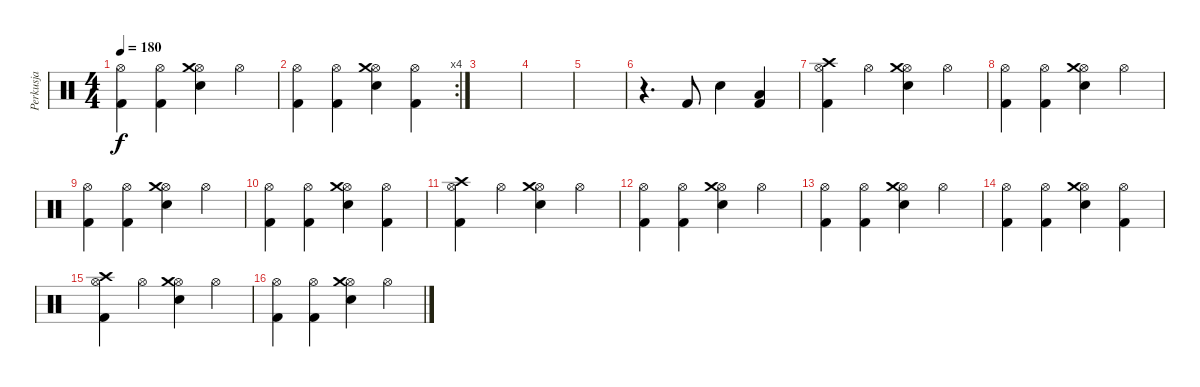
\track ("Perkusja" "Perkusja") {instrument percussion}
\staff {score}
\articulation defaults
\ts (4 4)
\tempo 180
\clef neutral
\ks c
("Hi-Hat (open)" "Kick (hit) 2").4{dy f} ("Hi-Hat (open)" "Kick (hit) 2").4 ("Hi-Hat (open)" "Snare (hit) 2" "Crash medium (hit)").4 "Hi-Hat (open)".4 |
\rc 4
("Hi-Hat (open)" "Kick (hit) 2").4 ("Hi-Hat (open)" "Kick (hit) 2").4 ("Hi-Hat (open)" "Snare (hit) 2" "Crash medium (hit)").4 ("Hi-Hat (open)" "Kick (hit) 2").4 |
|
|
|
r.4{d} "Kick (hit) 2".8 "Snare (hit) 2".4 ("Low Tom (hit)" "Kick (hit) 2").4 |
("Hi-Hat (open)" "Kick (hit) 2" "Crash high (hit)").4 "Hi-Hat (open)".4 ("Hi-Hat (open)" "Snare (hit) 2" "Crash medium (hit)").4 "Hi-Hat (open)".4 |
("Hi-Hat (open)" "Kick (hit) 2").4 ("Hi-Hat (open)" "Kick (hit) 2").4 ("Hi-Hat (open)" "Snare (hit) 2" "Crash medium (hit)").4 "Hi-Hat (open)".4 |
("Hi-Hat (open)" "Kick (hit) 2").4 ("Hi-Hat (open)" "Kick (hit) 2").4 ("Hi-Hat (open)" "Snare (hit) 2" "Crash medium (hit)").4 "Hi-Hat (open)".4 |
("Hi-Hat (open)" "Kick (hit) 2").4 ("Hi-Hat (open)" "Kick (hit) 2").4 ("Hi-Hat (open)" "Snare (hit) 2" "Crash medium (hit)").4 ("Hi-Hat (open)" "Kick (hit) 2").4 |
("Hi-Hat (open)" "Kick (hit) 2" "Crash high (hit)").4 "Hi-Hat (open)".4 ("Hi-Hat (open)" "Snare (hit) 2" "Crash medium (hit)").4 "Hi-Hat (open)".4 |
("Hi-Hat (open)" "Kick (hit) 2").4 ("Hi-Hat (open)" "Kick (hit) 2").4 ("Hi-Hat (open)" "Snare (hit) 2" "Crash medium (hit)").4 "Hi-Hat (open)".4 |
("Hi-Hat (open)" "Kick (hit) 2").4 ("Hi-Hat (open)" "Kick (hit) 2").4 ("Hi-Hat (open)" "Snare (hit) 2" "Crash medium (hit)").4 "Hi-Hat (open)".4 |
("Hi-Hat (open)" "Kick (hit) 2").4 ("Hi-Hat (open)" "Kick (hit) 2").4 ("Hi-Hat (open)" "Snare (hit) 2" "Crash medium (hit)").4 ("Hi-Hat (open)" "Kick (hit) 2").4 |
("Hi-Hat (open)" "Kick (hit) 2" "Crash high (hit)").4 "Hi-Hat (open)".4 ("Hi-Hat (open)" "Snare (hit) 2" "Crash medium (hit)").4 "Hi-Hat (open)".4 |
("Hi-Hat (open)" "Kick (hit) 2").4 ("Hi-Hat (open)" "Kick (hit) 2").4 ("Hi-Hat (open)" "Snare (hit) 2" "Crash medium (hit)").4 "Hi-Hat (open)".4
